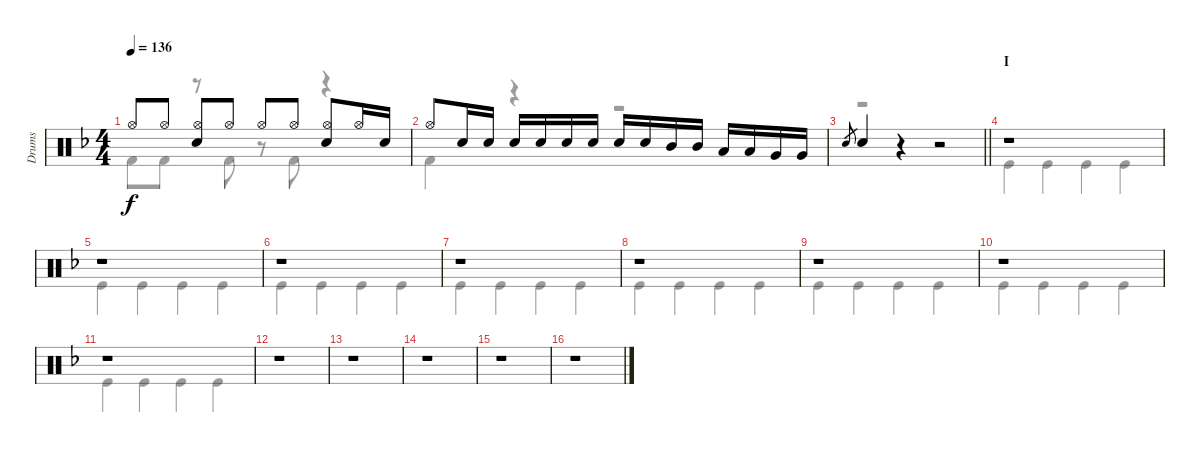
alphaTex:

\track ("Drums" "Drums") {instrument percussion}
\staff {score}
\articulation defaults
\voice
\ts (4 4)
\tempo 136
\clef neutral
\ks f "Hi-Hat (open)".8{dy f} "Hi-Hat (open)".8
("Hi-Hat (open)" "Snare (hit) 2").8 "Hi-Hat (open)".8 "Hi-Hat (open)".8 "Hi-Hat (open)".8 ("Hi-Hat (open)" "Snare (hit) 2").8 "Hi-Hat (open)".16 "Snare (hit) 2".16 |
"Hi-Hat (open)".8 "Snare (hit) 2".16 "Snare (hit) 2".16 "Snare (hit) 2".16 "Snare (hit) 2".16 "Snare (hit) 2".16 "Snare (hit) 2".16 "Snare (hit) 2".16 "Snare (hit) 2".16 "Mid Tom (hit)".16 "Mid Tom (hit)".16 "Low Tom (hit)".16 "Low Tom (hit)".16 "Very Low Tom (hit)".16 "Very Low Tom (hit)".16 |
\barLineRight lightlight "Snare (hit) 2".8{gr} "Snare (hit) 2".4
r.4 r.2 |
\section ("" "I")
r.1 |
r.1 |
r.1 |
r.1 |
r.1 |
r.1 |
r.1 |
r.1 |
r.1 |
r.1 |
r.1 |
r.1 |
r.1
\voice
\clef neutral
\ottava regular
\simile none
\ks f "Kick (hit) 2".8{dy f} "Kick (hit) 2".8
r.8 "Kick (hit) 2".8 r.8 "Kick (hit) 2".8 r.4 |
"Kick (hit) 2".4 r.4 r.2 |
\barLineRight lightlight
r.1 |
"Kick (hit)".4 "Kick (hit)".4 "Kick (hit)".4 "Kick (hit)".4 |
"Kick (hit)".4 "Kick (hit)".4 "Kick (hit)".4 "Kick (hit)".4 |
"Kick (hit)".4 "Kick (hit)".4 "Kick (hit)".4 "Kick (hit)".4 |
"Kick (hit)".4 "Kick (hit)".4 "Kick (hit)".4 "Kick (hit)".4 |
"Kick (hit)".4 "Kick (hit)".4 "Kick (hit)".4 "Kick (hit)".4 |
"Kick (hit)".4 "Kick (hit)".4 "Kick (hit)".4 "Kick (hit)".4 |
"Kick (hit)".4 "Kick (hit)".4 "Kick (hit)".4 "Kick (hit)".4 |
"Kick (hit)".4 "Kick (hit)".4 "Kick (hit)".4 "Kick (hit)".4 |
|
|
|
|
